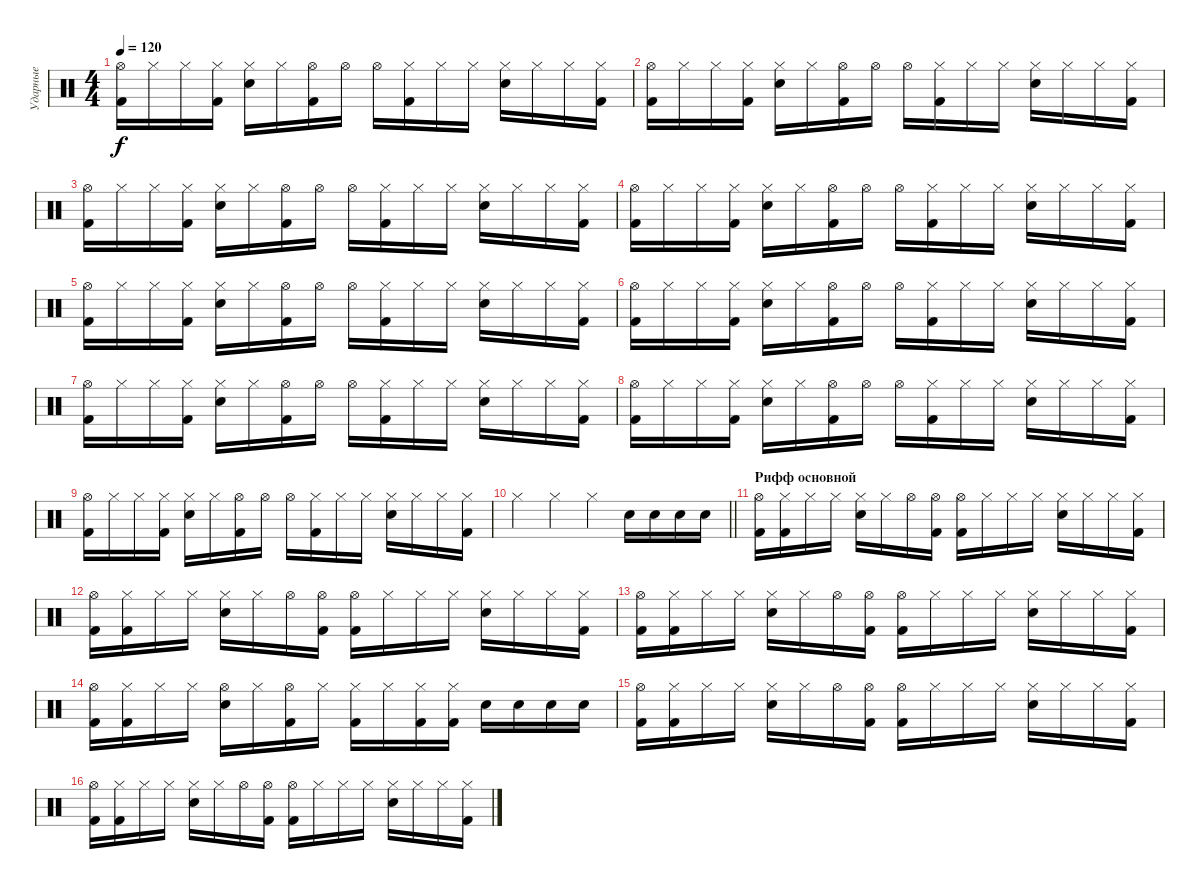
\track ("Ударные" "Ударные") {instrument percussion}
\staff {score}
\articulation defaults
\ts (4 4)
\tempo 120
\clef neutral
\ks c
("Kick (hit) 2" "Hi-Hat (open)").16{dy f} "Hi-Hat (closed)".16 "Hi-Hat (closed)".16 ("Kick (hit) 2" "Hi-Hat (closed)").16 ("Electric Snare (hit)" "Hi-Hat (closed)").16 "Hi-Hat (closed)".16 ("Kick (hit) 2" "Hi-Hat (open)").16 "Hi-Hat (open)".16 "Hi-Hat (open)".16 ("Kick (hit) 2" "Hi-Hat (closed)").16 "Hi-Hat (closed)".16 "Hi-Hat (closed)".16 ("Electric Snare (hit)" "Hi-Hat (closed)").16 "Hi-Hat (closed)".16 "Hi-Hat (closed)".16 ("Kick (hit) 2" "Hi-Hat (closed)").16 |
("Kick (hit) 2" "Hi-Hat (open)").16 "Hi-Hat (closed)".16 "Hi-Hat (closed)".16 ("Kick (hit) 2" "Hi-Hat (closed)").16 ("Electric Snare (hit)" "Hi-Hat (closed)").16 "Hi-Hat (closed)".16 ("Kick (hit) 2" "Hi-Hat (open)").16 "Hi-Hat (open)".16 "Hi-Hat (open)".16 ("Kick (hit) 2" "Hi-Hat (closed)").16 "Hi-Hat (closed)".16 "Hi-Hat (closed)".16 ("Electric Snare (hit)" "Hi-Hat (closed)").16 "Hi-Hat (closed)".16 "Hi-Hat (closed)".16 ("Kick (hit) 2" "Hi-Hat (closed)").16 |
("Kick (hit) 2" "Hi-Hat (open)").16 "Hi-Hat (closed)".16 "Hi-Hat (closed)".16 ("Kick (hit) 2" "Hi-Hat (closed)").16 ("Electric Snare (hit)" "Hi-Hat (closed)").16 "Hi-Hat (closed)".16 ("Kick (hit) 2" "Hi-Hat (open)").16 "Hi-Hat (open)".16 "Hi-Hat (open)".16 ("Kick (hit) 2" "Hi-Hat (closed)").16 "Hi-Hat (closed)".16 "Hi-Hat (closed)".16 ("Electric Snare (hit)" "Hi-Hat (closed)").16 "Hi-Hat (closed)".16 "Hi-Hat (closed)".16 ("Kick (hit) 2" "Hi-Hat (closed)").16 |
("Kick (hit) 2" "Hi-Hat (open)").16 "Hi-Hat (closed)".16 "Hi-Hat (closed)".16 ("Kick (hit) 2" "Hi-Hat (closed)").16 ("Electric Snare (hit)" "Hi-Hat (closed)").16 "Hi-Hat (closed)".16 ("Kick (hit) 2" "Hi-Hat (open)").16 "Hi-Hat (open)".16 "Hi-Hat (open)".16 ("Kick (hit) 2" "Hi-Hat (closed)").16 "Hi-Hat (closed)".16 "Hi-Hat (closed)".16 ("Electric Snare (hit)" "Hi-Hat (closed)").16 "Hi-Hat (closed)".16 "Hi-Hat (closed)".16 ("Kick (hit) 2" "Hi-Hat (closed)").16 |
("Kick (hit) 2" "Hi-Hat (open)").16 "Hi-Hat (closed)".16 "Hi-Hat (closed)".16 ("Kick (hit) 2" "Hi-Hat (closed)").16 ("Electric Snare (hit)" "Hi-Hat (closed)").16 "Hi-Hat (closed)".16 ("Kick (hit) 2" "Hi-Hat (open)").16 "Hi-Hat (open)".16 "Hi-Hat (open)".16 ("Kick (hit) 2" "Hi-Hat (closed)").16 "Hi-Hat (closed)".16 "Hi-Hat (closed)".16 ("Electric Snare (hit)" "Hi-Hat (closed)").16 "Hi-Hat (closed)".16 "Hi-Hat (closed)".16 ("Kick (hit) 2" "Hi-Hat (closed)").16 |
("Kick (hit) 2" "Hi-Hat (open)").16 "Hi-Hat (closed)".16 "Hi-Hat (closed)".16 ("Kick (hit) 2" "Hi-Hat (closed)").16 ("Electric Snare (hit)" "Hi-Hat (closed)").16 "Hi-Hat (closed)".16 ("Kick (hit) 2" "Hi-Hat (open)").16 "Hi-Hat (open)".16 "Hi-Hat (open)".16 ("Kick (hit) 2" "Hi-Hat (closed)").16 "Hi-Hat (closed)".16 "Hi-Hat (closed)".16 ("Electric Snare (hit)" "Hi-Hat (closed)").16 "Hi-Hat (closed)".16 "Hi-Hat (closed)".16 ("Kick (hit) 2" "Hi-Hat (closed)").16 |
("Kick (hit) 2" "Hi-Hat (open)").16 "Hi-Hat (closed)".16 "Hi-Hat (closed)".16 ("Kick (hit) 2" "Hi-Hat (closed)").16 ("Electric Snare (hit)" "Hi-Hat (closed)").16 "Hi-Hat (closed)".16 ("Kick (hit) 2" "Hi-Hat (open)").16 "Hi-Hat (open)".16 "Hi-Hat (open)".16 ("Kick (hit) 2" "Hi-Hat (closed)").16 "Hi-Hat (closed)".16 "Hi-Hat (closed)".16 ("Electric Snare (hit)" "Hi-Hat (closed)").16 "Hi-Hat (closed)".16 "Hi-Hat (closed)".16 ("Kick (hit) 2" "Hi-Hat (closed)").16 |
("Kick (hit) 2" "Hi-Hat (open)").16 "Hi-Hat (closed)".16 "Hi-Hat (closed)".16 ("Kick (hit) 2" "Hi-Hat (closed)").16 ("Electric Snare (hit)" "Hi-Hat (closed)").16 "Hi-Hat (closed)".16 ("Kick (hit) 2" "Hi-Hat (open)").16 "Hi-Hat (open)".16 "Hi-Hat (open)".16 ("Kick (hit) 2" "Hi-Hat (closed)").16 "Hi-Hat (closed)".16 "Hi-Hat (closed)".16 ("Electric Snare (hit)" "Hi-Hat (closed)").16 "Hi-Hat (closed)".16 "Hi-Hat (closed)".16 ("Kick (hit) 2" "Hi-Hat (closed)").16 |
("Kick (hit) 2" "Hi-Hat (open)").16 "Hi-Hat (closed)".16 "Hi-Hat (closed)".16 ("Kick (hit) 2" "Hi-Hat (closed)").16 ("Electric Snare (hit)" "Hi-Hat (closed)").16 "Hi-Hat (closed)".16 ("Kick (hit) 2" "Hi-Hat (open)").16 "Hi-Hat (open)".16 "Hi-Hat (open)".16 ("Kick (hit) 2" "Hi-Hat (closed)").16 "Hi-Hat (closed)".16 "Hi-Hat (closed)".16 ("Electric Snare (hit)" "Hi-Hat (closed)").16 "Hi-Hat (closed)".16 "Hi-Hat (closed)".16 ("Kick (hit) 2" "Hi-Hat (closed)").16 |
\barLineRight lightlight "Hi-Hat (closed)".4 "Hi-Hat (closed)".4 "Hi-Hat (closed)".4 "Electric Snare (hit)".16 "Electric Snare (hit)".16 "Electric Snare (hit)".16 "Electric Snare (hit)".16
|
\section ("" "Рифф основной")
("Kick (hit) 2" "Hi-Hat (open)").16 ("Kick (hit) 2" "Hi-Hat (closed)").16 "Hi-Hat (closed)".16 "Hi-Hat (closed)".16 ("Electric Snare (hit)" "Hi-Hat (closed)").16 "Hi-Hat (closed)".16 "Hi-Hat (open)".16 ("Kick (hit) 2" "Hi-Hat (open)").16 ("Kick (hit) 2" "Hi-Hat (open)").16 "Hi-Hat (closed)".16 "Hi-Hat (closed)".16 "Hi-Hat (closed)".16 ("Electric Snare (hit)" "Hi-Hat (closed)").16 "Hi-Hat (closed)".16 "Hi-Hat (closed)".16 ("Kick (hit) 2" "Hi-Hat (closed)").16 |
("Kick (hit) 2" "Hi-Hat (open)").16 ("Kick (hit) 2" "Hi-Hat (closed)").16 "Hi-Hat (closed)".16 "Hi-Hat (closed)".16 ("Electric Snare (hit)" "Hi-Hat (closed)").16 "Hi-Hat (closed)".16 "Hi-Hat (open)".16 ("Kick (hit) 2" "Hi-Hat (open)").16 ("Kick (hit) 2" "Hi-Hat (open)").16 "Hi-Hat (closed)".16 "Hi-Hat (closed)".16 "Hi-Hat (closed)".16 ("Electric Snare (hit)" "Hi-Hat (closed)").16 "Hi-Hat (closed)".16 "Hi-Hat (closed)".16 ("Kick (hit) 2" "Hi-Hat (closed)").16 |
("Kick (hit) 2" "Hi-Hat (open)").16 ("Kick (hit) 2" "Hi-Hat (closed)").16 "Hi-Hat (closed)".16 "Hi-Hat (closed)".16 ("Electric Snare (hit)" "Hi-Hat (closed)").16 "Hi-Hat (closed)".16 "Hi-Hat (open)".16 ("Kick (hit) 2" "Hi-Hat (open)").16 ("Kick (hit) 2" "Hi-Hat (open)").16 "Hi-Hat (closed)".16 "Hi-Hat (closed)".16 "Hi-Hat (closed)".16 ("Electric Snare (hit)" "Hi-Hat (closed)").16 "Hi-Hat (closed)".16 "Hi-Hat (closed)".16 ("Kick (hit) 2" "Hi-Hat (closed)").16 |
("Kick (hit) 2" "Hi-Hat (open)").16 ("Kick (hit) 2" "Hi-Hat (closed)").16 "Hi-Hat (closed)".16 "Hi-Hat (closed)".16 ("Electric Snare (hit)" "Hi-Hat (open)").16 "Hi-Hat (closed)".16 ("Kick (hit) 2" "Hi-Hat (open)").16 "Hi-Hat (closed)".16 ("Kick (hit) 2" "Hi-Hat (closed)").16 "Hi-Hat (closed)".16 ("Kick (hit) 2" "Hi-Hat (closed)").16 ("Kick (hit) 2" "Hi-Hat (closed)").16 "Electric Snare (hit)".16 "Electric Snare (hit)".16 "Electric Snare (hit)".16 "Electric Snare (hit)".16 |
("Kick (hit) 2" "Hi-Hat (open)").16 ("Kick (hit) 2" "Hi-Hat (closed)").16 "Hi-Hat (closed)".16 "Hi-Hat (closed)".16 ("Electric Snare (hit)" "Hi-Hat (closed)").16 "Hi-Hat (closed)".16 "Hi-Hat (open)".16 ("Kick (hit) 2" "Hi-Hat (open)").16 ("Kick (hit) 2" "Hi-Hat (open)").16 "Hi-Hat (closed)".16 "Hi-Hat (closed)".16 "Hi-Hat (closed)".16 ("Electric Snare (hit)" "Hi-Hat (closed)").16 "Hi-Hat (closed)".16 "Hi-Hat (closed)".16 ("Kick (hit) 2" "Hi-Hat (closed)").16 |
("Kick (hit) 2" "Hi-Hat (open)").16 ("Kick (hit) 2" "Hi-Hat (closed)").16 "Hi-Hat (closed)".16 "Hi-Hat (closed)".16 ("Electric Snare (hit)" "Hi-Hat (closed)").16 "Hi-Hat (closed)".16 "Hi-Hat (open)".16 ("Kick (hit) 2" "Hi-Hat (open)").16 ("Kick (hit) 2" "Hi-Hat (open)").16 "Hi-Hat (closed)".16 "Hi-Hat (closed)".16 "Hi-Hat (closed)".16 ("Electric Snare (hit)" "Hi-Hat (closed)").16 "Hi-Hat (closed)".16 "Hi-Hat (closed)".16 ("Kick (hit) 2" "Hi-Hat (closed)").16
